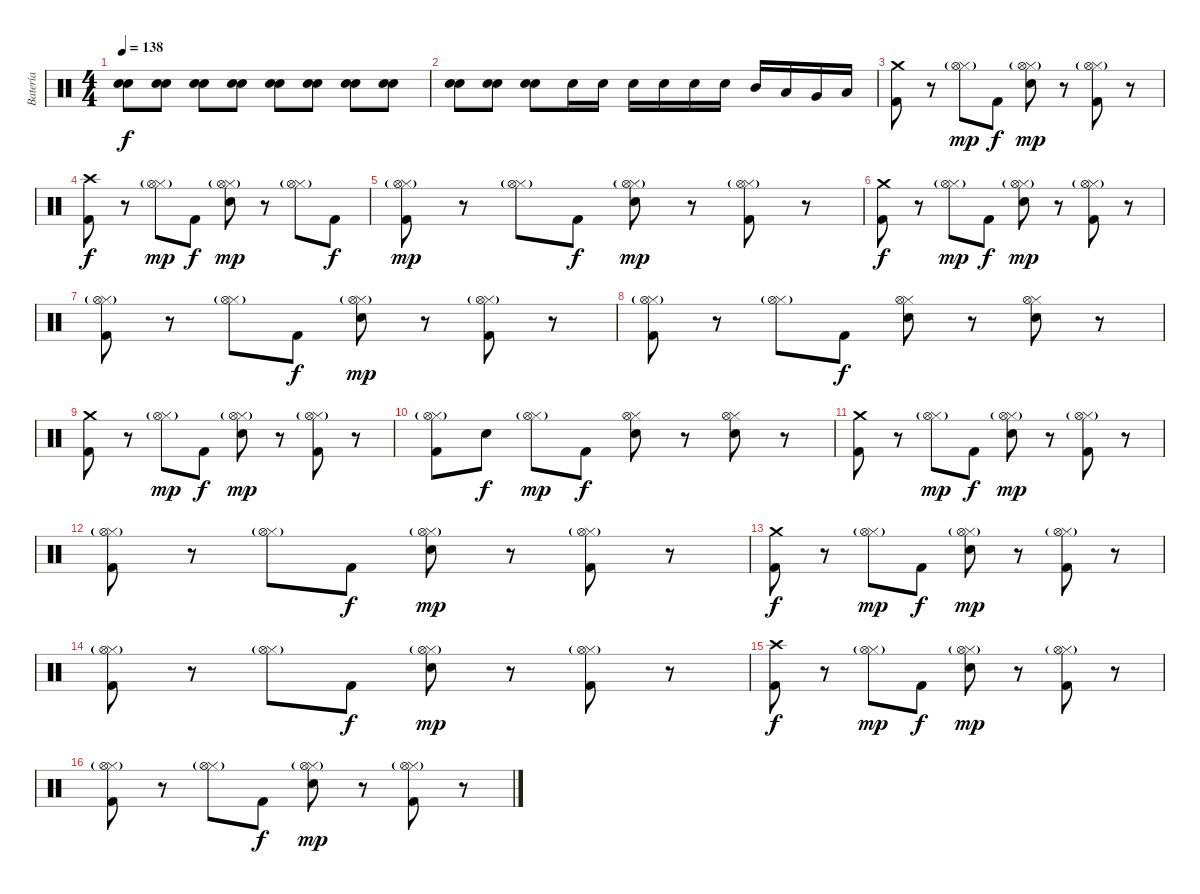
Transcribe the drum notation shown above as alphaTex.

\track ("Batería" "Batería") {instrument percussion}
\staff {score}
\articulation defaults
\ts (4 4)
\tempo 138
\clef neutral
\ks c
("Snare (hit) 2" "Snare (hit) 2").8{dy f} ("Snare (hit) 2" "Snare (hit) 2").8 ("Snare (hit) 2" "Snare (hit) 2").8 ("Snare (hit) 2" "Snare (hit) 2").8 ("Snare (hit) 2" "Snare (hit) 2").8 ("Snare (hit) 2" "Snare (hit) 2").8 ("Snare (hit) 2" "Snare (hit) 2").8 ("Snare (hit) 2" "Snare (hit) 2").8 |
("Snare (hit) 2" "Snare (hit) 2").8 ("Snare (hit) 2" "Snare (hit) 2").8 ("Snare (hit) 2" "Snare (hit) 2").8 "Snare (hit) 2".16 "Snare (hit) 2".16 "Snare (hit) 2".16 "Snare (hit) 2".16 "Snare (hit) 2".16 "Snare (hit) 2".16 "Mid Tom (hit)".16 "Low Tom (hit)".16 "Very Low Tom (hit)".16 "Low Floor Tom (hit)".16 |
("Crash medium (hit)" "Kick (hit) 2").8 r.8 ("Hi-Hat (closed)" "Hi-Hat (open)"{g}).8{dy mp} "Kick (hit) 2".8{dy f} ("Hi-Hat (closed)" "Hi-Hat (open)"{g} "Snare (hit) 2").8{dy mp} r.8 ("Hi-Hat (closed)" "Hi-Hat (open)"{g} "Kick (hit) 2").8 r.8 |
("Crash high (hit)" "Kick (hit) 2").8{dy f} r.8 ("Hi-Hat (closed)" "Hi-Hat (open)"{g}).8{dy mp} "Kick (hit) 2".8{dy f} ("Hi-Hat (closed)" "Hi-Hat (open)"{g} "Snare (hit) 2").8{dy mp} r.8 ("Hi-Hat (closed)" "Hi-Hat (open)"{g}).8 "Kick (hit) 2".8{dy f} |
("Hi-Hat (closed)" "Hi-Hat (open)"{g} "Kick (hit) 2").8{dy mp} r.8 ("Hi-Hat (closed)" "Hi-Hat (open)"{g}).8 "Kick (hit) 2".8{dy f} ("Hi-Hat (closed)" "Hi-Hat (open)"{g} "Snare (hit) 2").8{dy mp} r.8 ("Hi-Hat (closed)" "Hi-Hat (open)"{g} "Kick (hit) 2").8 r.8 |
("Crash medium (hit)" "Kick (hit) 2").8{dy f} r.8 ("Hi-Hat (closed)" "Hi-Hat (open)"{g}).8{dy mp} "Kick (hit) 2".8{dy f} ("Hi-Hat (closed)" "Hi-Hat (open)"{g} "Snare (hit) 2").8{dy mp} r.8 ("Hi-Hat (closed)" "Hi-Hat (open)"{g} "Kick (hit) 2").8 r.8 |
("Hi-Hat (closed)" "Hi-Hat (open)"{g} "Kick (hit) 2").8 r.8 ("Hi-Hat (closed)" "Hi-Hat (open)"{g}).8 "Kick (hit) 2".8{dy f} ("Hi-Hat (closed)" "Hi-Hat (open)"{g} "Snare (hit) 2").8{dy mp} r.8 ("Hi-Hat (closed)" "Hi-Hat (open)"{g} "Kick (hit) 2").8 r.8 |
("Hi-Hat (closed)" "Hi-Hat (open)"{g} "Kick (hit) 2").8 r.8 ("Hi-Hat (closed)" "Hi-Hat (open)"{g}).8 "Kick (hit) 2".8{dy f} ("Hi-Hat (closed)" "Hi-Hat (open)" "Snare (hit) 2").8 r.8 ("Hi-Hat (closed)" "Hi-Hat (open)" "Snare (hit) 2").8 r.8 |
("Crash medium (hit)" "Kick (hit) 2").8 r.8 ("Hi-Hat (closed)" "Hi-Hat (open)"{g}).8{dy mp} "Kick (hit) 2".8{dy f} ("Hi-Hat (closed)" "Hi-Hat (open)"{g} "Snare (hit) 2").8{dy mp} r.8 ("Hi-Hat (closed)" "Hi-Hat (open)"{g} "Kick (hit) 2").8 r.8 |
("Hi-Hat (closed)" "Hi-Hat (open)"{g} "Kick (hit) 2").8 "Snare (hit) 2".8{dy f} ("Hi-Hat (closed)" "Hi-Hat (open)"{g}).8{dy mp} "Kick (hit) 2".8{dy f} ("Hi-Hat (closed)" "Hi-Hat (open)" "Snare (hit) 2").8 r.8 ("Hi-Hat (closed)" "Hi-Hat (open)" "Snare (hit) 2").8 r.8 |
("Crash medium (hit)" "Kick (hit) 2").8 r.8 ("Hi-Hat (closed)" "Hi-Hat (open)"{g}).8{dy mp} "Kick (hit) 2".8{dy f} ("Hi-Hat (closed)" "Hi-Hat (open)"{g} "Snare (hit) 2").8{dy mp} r.8 ("Hi-Hat (closed)" "Hi-Hat (open)"{g} "Kick (hit) 2").8 r.8 |
("Hi-Hat (closed)" "Hi-Hat (open)"{g} "Kick (hit) 2").8 r.8 ("Hi-Hat (closed)" "Hi-Hat (open)"{g}).8 "Kick (hit) 2".8{dy f} ("Hi-Hat (closed)" "Hi-Hat (open)"{g} "Snare (hit) 2").8{dy mp} r.8 ("Hi-Hat (closed)" "Hi-Hat (open)"{g} "Kick (hit) 2").8 r.8 |
("Crash medium (hit)" "Kick (hit) 2").8{dy f} r.8 ("Hi-Hat (closed)" "Hi-Hat (open)"{g}).8{dy mp} "Kick (hit) 2".8{dy f} ("Hi-Hat (closed)" "Hi-Hat (open)"{g} "Snare (hit) 2").8{dy mp} r.8 ("Hi-Hat (closed)" "Hi-Hat (open)"{g} "Kick (hit) 2").8 r.8 |
("Hi-Hat (closed)" "Hi-Hat (open)"{g} "Kick (hit) 2").8 r.8 ("Hi-Hat (closed)" "Hi-Hat (open)"{g}).8 "Kick (hit) 2".8{dy f} ("Hi-Hat (closed)" "Hi-Hat (open)"{g} "Snare (hit) 2").8{dy mp} r.8 ("Hi-Hat (closed)" "Hi-Hat (open)"{g} "Kick (hit) 2").8 r.8 |
("Crash high (hit)" "Kick (hit) 2").8{dy f} r.8 ("Hi-Hat (closed)" "Hi-Hat (open)"{g}).8{dy mp} "Kick (hit) 2".8{dy f} ("Hi-Hat (closed)" "Hi-Hat (open)"{g} "Snare (hit) 2").8{dy mp} r.8 ("Hi-Hat (closed)" "Hi-Hat (open)"{g} "Kick (hit) 2").8 r.8 |
("Hi-Hat (closed)" "Hi-Hat (open)"{g} "Kick (hit) 2").8 r.8 ("Hi-Hat (closed)" "Hi-Hat (open)"{g}).8 "Kick (hit) 2".8{dy f} ("Hi-Hat (closed)" "Hi-Hat (open)"{g} "Snare (hit) 2").8{dy mp} r.8 ("Hi-Hat (closed)" "Hi-Hat (open)"{g} "Kick (hit) 2").8 r.8
